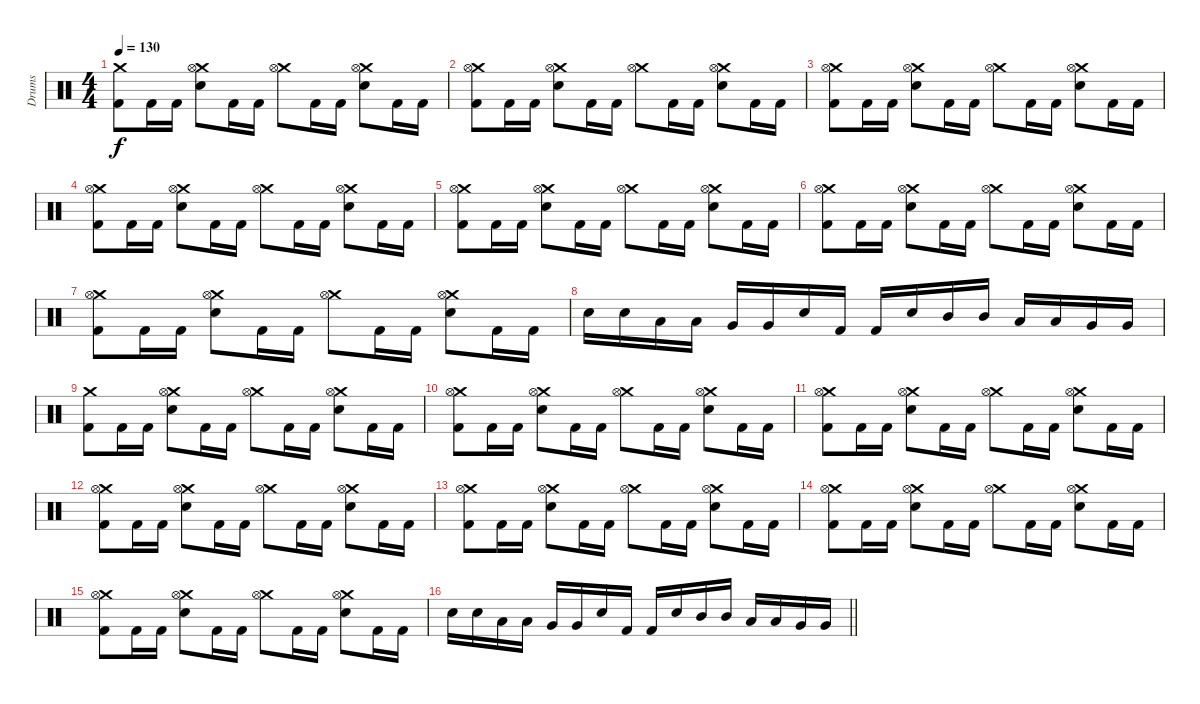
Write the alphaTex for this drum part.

\track ("Drums" "Drums") {instrument percussion}
\staff {score}
\articulation defaults
\ts (4 4)
\section ("" "")
\tempo 130
\clef neutral
\ks c
("Crash medium (hit)" "Kick (hit) 2").8{dy f} "Kick (hit) 2".16 "Kick (hit) 2".16 ("Crash medium (hit)" "Hi-Hat (open)" "Electric Snare (hit)").8 "Kick (hit) 2".16 "Kick (hit) 2".16 ("Crash medium (hit)" "Hi-Hat (open)").8 "Kick (hit) 2".16 "Kick (hit) 2".16 ("Crash medium (hit)" "Hi-Hat (open)" "Electric Snare (hit)").8 "Kick (hit) 2".16 "Kick (hit) 2".16 |
("Crash medium (hit)" "Hi-Hat (open)" "Kick (hit) 2").8 "Kick (hit) 2".16 "Kick (hit) 2".16 ("Crash medium (hit)" "Hi-Hat (open)" "Electric Snare (hit)").8 "Kick (hit) 2".16 "Kick (hit) 2".16 ("Crash medium (hit)" "Hi-Hat (open)").8 "Kick (hit) 2".16 "Kick (hit) 2".16 ("Crash medium (hit)" "Hi-Hat (open)" "Electric Snare (hit)").8 "Kick (hit) 2".16 "Kick (hit) 2".16 |
("Crash medium (hit)" "Hi-Hat (open)" "Kick (hit) 2").8 "Kick (hit) 2".16 "Kick (hit) 2".16 ("Crash medium (hit)" "Hi-Hat (open)" "Electric Snare (hit)").8 "Kick (hit) 2".16 "Kick (hit) 2".16 ("Crash medium (hit)" "Hi-Hat (open)").8 "Kick (hit) 2".16 "Kick (hit) 2".16 ("Crash medium (hit)" "Hi-Hat (open)" "Electric Snare (hit)").8 "Kick (hit) 2".16 "Kick (hit) 2".16 |
("Crash medium (hit)" "Hi-Hat (open)" "Kick (hit) 2").8 "Kick (hit) 2".16 "Kick (hit) 2".16 ("Crash medium (hit)" "Hi-Hat (open)" "Electric Snare (hit)").8 "Kick (hit) 2".16 "Kick (hit) 2".16 ("Crash medium (hit)" "Hi-Hat (open)").8 "Kick (hit) 2".16 "Kick (hit) 2".16 ("Crash medium (hit)" "Hi-Hat (open)" "Electric Snare (hit)").8 "Kick (hit) 2".16 "Kick (hit) 2".16 |
("Crash medium (hit)" "Hi-Hat (open)" "Kick (hit) 2").8 "Kick (hit) 2".16 "Kick (hit) 2".16 ("Crash medium (hit)" "Hi-Hat (open)" "Electric Snare (hit)").8 "Kick (hit) 2".16 "Kick (hit) 2".16 ("Crash medium (hit)" "Hi-Hat (open)").8 "Kick (hit) 2".16 "Kick (hit) 2".16 ("Crash medium (hit)" "Hi-Hat (open)" "Electric Snare (hit)").8 "Kick (hit) 2".16 "Kick (hit) 2".16 |
("Crash medium (hit)" "Hi-Hat (open)" "Kick (hit) 2").8 "Kick (hit) 2".16 "Kick (hit) 2".16 ("Crash medium (hit)" "Hi-Hat (open)" "Electric Snare (hit)").8 "Kick (hit) 2".16 "Kick (hit) 2".16 ("Crash medium (hit)" "Hi-Hat (open)").8 "Kick (hit) 2".16 "Kick (hit) 2".16 ("Crash medium (hit)" "Hi-Hat (open)" "Electric Snare (hit)").8 "Kick (hit) 2".16 "Kick (hit) 2".16 |
("Crash medium (hit)" "Hi-Hat (open)" "Kick (hit) 2").8 "Kick (hit) 2".16 "Kick (hit) 2".16 ("Crash medium (hit)" "Hi-Hat (open)" "Electric Snare (hit)").8 "Kick (hit) 2".16 "Kick (hit) 2".16 ("Crash medium (hit)" "Hi-Hat (open)").8 "Kick (hit) 2".16 "Kick (hit) 2".16 ("Crash medium (hit)" "Hi-Hat (open)" "Electric Snare (hit)").8 "Kick (hit) 2".16 "Kick (hit) 2".16 |
"Electric Snare (hit)".16 "Electric Snare (hit)".16 "Low Tom (hit)".16 "Low Tom (hit)".16 "Very Low Tom (hit)".16 "Very Low Tom (hit)".16 "Electric Snare (hit)".16 "Kick (hit) 2".16 "Kick (hit) 2".16 "Electric Snare (hit)".16 "Mid Tom (hit)".16 "Mid Tom (hit)".16 "Low Tom (hit)".16 "Low Tom (hit)".16 "Very Low Tom (hit)".16 "Very Low Tom (hit)".16 |
("Crash medium (hit)" "Kick (hit) 2").8 "Kick (hit) 2".16 "Kick (hit) 2".16 ("Crash medium (hit)" "Hi-Hat (open)" "Electric Snare (hit)").8 "Kick (hit) 2".16 "Kick (hit) 2".16 ("Crash medium (hit)" "Hi-Hat (open)").8 "Kick (hit) 2".16 "Kick (hit) 2".16 ("Crash medium (hit)" "Hi-Hat (open)" "Electric Snare (hit)").8 "Kick (hit) 2".16 "Kick (hit) 2".16 |
("Crash medium (hit)" "Hi-Hat (open)" "Kick (hit) 2").8 "Kick (hit) 2".16 "Kick (hit) 2".16 ("Crash medium (hit)" "Hi-Hat (open)" "Electric Snare (hit)").8 "Kick (hit) 2".16 "Kick (hit) 2".16 ("Crash medium (hit)" "Hi-Hat (open)").8 "Kick (hit) 2".16 "Kick (hit) 2".16 ("Crash medium (hit)" "Hi-Hat (open)" "Electric Snare (hit)").8 "Kick (hit) 2".16 "Kick (hit) 2".16 |
("Crash medium (hit)" "Hi-Hat (open)" "Kick (hit) 2").8 "Kick (hit) 2".16 "Kick (hit) 2".16 ("Crash medium (hit)" "Hi-Hat (open)" "Electric Snare (hit)").8 "Kick (hit) 2".16 "Kick (hit) 2".16 ("Crash medium (hit)" "Hi-Hat (open)").8 "Kick (hit) 2".16 "Kick (hit) 2".16 ("Crash medium (hit)" "Hi-Hat (open)" "Electric Snare (hit)").8 "Kick (hit) 2".16 "Kick (hit) 2".16 |
("Crash medium (hit)" "Hi-Hat (open)" "Kick (hit) 2").8 "Kick (hit) 2".16 "Kick (hit) 2".16 ("Crash medium (hit)" "Hi-Hat (open)" "Electric Snare (hit)").8 "Kick (hit) 2".16 "Kick (hit) 2".16 ("Crash medium (hit)" "Hi-Hat (open)").8 "Kick (hit) 2".16 "Kick (hit) 2".16 ("Crash medium (hit)" "Hi-Hat (open)" "Electric Snare (hit)").8 "Kick (hit) 2".16 "Kick (hit) 2".16 |
("Crash medium (hit)" "Hi-Hat (open)" "Kick (hit) 2").8 "Kick (hit) 2".16 "Kick (hit) 2".16 ("Crash medium (hit)" "Hi-Hat (open)" "Electric Snare (hit)").8 "Kick (hit) 2".16 "Kick (hit) 2".16 ("Crash medium (hit)" "Hi-Hat (open)").8 "Kick (hit) 2".16 "Kick (hit) 2".16 ("Crash medium (hit)" "Hi-Hat (open)" "Electric Snare (hit)").8 "Kick (hit) 2".16 "Kick (hit) 2".16 |
("Crash medium (hit)" "Hi-Hat (open)" "Kick (hit) 2").8 "Kick (hit) 2".16 "Kick (hit) 2".16 ("Crash medium (hit)" "Hi-Hat (open)" "Electric Snare (hit)").8 "Kick (hit) 2".16 "Kick (hit) 2".16 ("Crash medium (hit)" "Hi-Hat (open)").8 "Kick (hit) 2".16 "Kick (hit) 2".16 ("Crash medium (hit)" "Hi-Hat (open)" "Electric Snare (hit)").8 "Kick (hit) 2".16 "Kick (hit) 2".16 |
("Crash medium (hit)" "Hi-Hat (open)" "Kick (hit) 2").8 "Kick (hit) 2".16 "Kick (hit) 2".16 ("Crash medium (hit)" "Hi-Hat (open)" "Electric Snare (hit)").8 "Kick (hit) 2".16 "Kick (hit) 2".16 ("Crash medium (hit)" "Hi-Hat (open)").8 "Kick (hit) 2".16 "Kick (hit) 2".16 ("Crash medium (hit)" "Hi-Hat (open)" "Electric Snare (hit)").8 "Kick (hit) 2".16 "Kick (hit) 2".16 |
\barLineRight lightlight "Electric Snare (hit)".16 "Electric Snare (hit)".16 "Low Tom (hit)".16 "Low Tom (hit)".16 "Very Low Tom (hit)".16 "Very Low Tom (hit)".16 "Electric Snare (hit)".16 "Kick (hit) 2".16 "Kick (hit) 2".16 "Electric Snare (hit)".16 "Mid Tom (hit)".16 "Mid Tom (hit)".16 "Low Tom (hit)".16 "Low Tom (hit)".16 "Very Low Tom (hit)".16 "Very Low Tom (hit)".16
